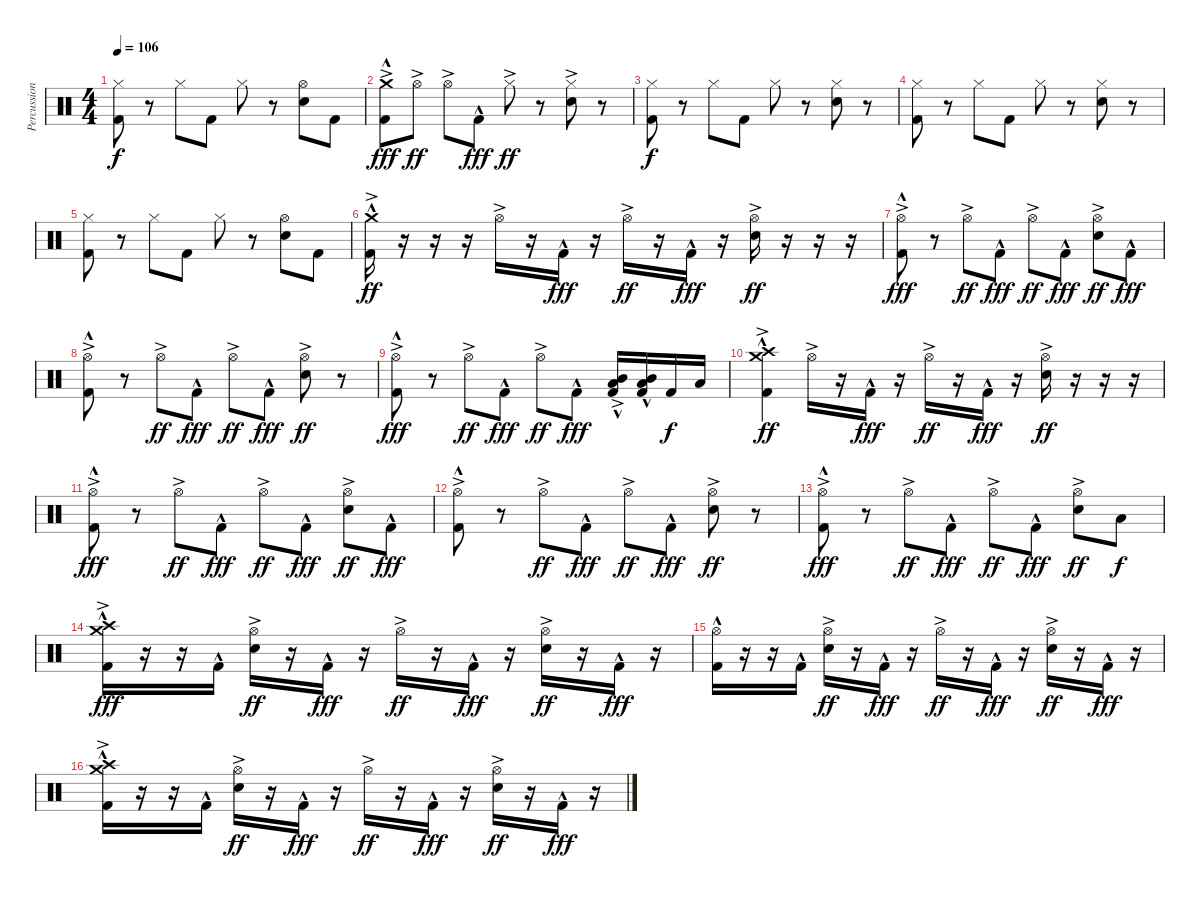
\track ("Percussion" "Percussion") {instrument percussion}
\staff {score}
\articulation defaults
\ts (4 4)
\tempo 106
\clef neutral
\ks c
("Hi-Hat (closed)" "Kick (hit) 2").8{dy f} r.8 "Hi-Hat (closed)".8 "Kick (hit) 2".8 "Hi-Hat (closed)".8 r.8 ("Hi-Hat (open)" "Snare (hit) 2").8 "Kick (hit) 2".8 |
("Crash medium (hit)"{ac} "Kick (hit) 2"{hac}).8{dy fff} "Hi-Hat (open)"{ac}.8{dy ff} "Hi-Hat (open)"{ac}.8 "Kick (hit) 2"{hac}.8{dy fff} "Hi-Hat (closed)"{ac}.8{dy ff} r.8 ("Hi-Hat (closed)"{ac} "Snare (hit) 2"{ac}).8 r.8 |
("Hi-Hat (closed)" "Kick (hit) 2").8{dy f} r.8 "Hi-Hat (closed)".8 "Kick (hit) 2".8 "Hi-Hat (closed)".8 r.8 ("Hi-Hat (closed)" "Snare (hit) 2").8 r.8 |
("Hi-Hat (closed)" "Kick (hit) 2").8 r.8 "Hi-Hat (closed)".8 "Kick (hit) 2".8 "Hi-Hat (closed)".8 r.8 ("Hi-Hat (closed)" "Snare (hit) 2").8 r.8 |
("Hi-Hat (closed)" "Kick (hit) 2").8 r.8 "Hi-Hat (closed)".8 "Kick (hit) 2".8 "Hi-Hat (closed)".8 r.8 ("Hi-Hat (open)" "Snare (hit) 2").8 "Kick (hit) 2".8 |
("Crash medium (hit)"{hac} "Kick (hit) 2"{ac}).16{dy ff} r.16 r.16 r.16 "Hi-Hat (open)"{ac}.16 r.16 "Kick (hit) 2"{hac}.16{dy fff} r.16 "Hi-Hat (open)"{ac}.16{dy ff} r.16 "Kick (hit) 2"{hac}.16{dy fff} r.16 ("Hi-Hat (open)"{ac} "Snare (hit) 2"{ac}).16{dy ff} r.16 r.16 r.16 |
("Hi-Hat (open)"{ac} "Kick (hit) 2"{hac}).8{dy fff} r.8 "Hi-Hat (open)"{ac}.8{dy ff} "Kick (hit) 2"{hac}.8{dy fff} "Hi-Hat (open)"{ac}.8{dy ff} "Kick (hit) 2"{hac}.8{dy fff} ("Hi-Hat (open)"{ac} "Snare (hit) 2"{ac}).8{dy ff} "Kick (hit) 2"{hac}.8{dy fff} |
("Hi-Hat (open)"{ac} "Kick (hit) 2"{hac}).8 r.8 "Hi-Hat (open)"{ac}.8{dy ff} "Kick (hit) 2"{hac}.8{dy fff} "Hi-Hat (open)"{ac}.8{dy ff} "Kick (hit) 2"{hac}.8{dy fff} ("Hi-Hat (open)"{ac} "Snare (hit) 2"{ac}).8{dy ff} r.8 |
("Hi-Hat (open)"{ac} "Kick (hit) 2"{hac}).8{dy fff} r.8 "Hi-Hat (open)"{ac}.8{dy ff} "Kick (hit) 2"{hac}.8{dy fff} "Hi-Hat (open)"{ac}.8{dy ff} "Kick (hit) 2"{hac}.8{dy fff} ("Low Tom (hit)"{ac} "Mid Tom (hit)"{hac} "Kick (hit) 2").16 ("Low Tom (hit)"{hac} "Mid Tom (hit)"{hac} "Kick (hit) 2").16 "Kick (hit) 2".16{dy f} "Low Tom (hit)".16 |
("Crash medium (hit)"{hac} "Crash high (hit)"{hac} "Kick (hit) 2"{ac}).4{dy ff} "Hi-Hat (open)"{ac}.16 r.16 "Kick (hit) 2"{hac}.16{dy fff} r.16 "Hi-Hat (open)"{ac}.16{dy ff} r.16 "Kick (hit) 2"{hac}.16{dy fff} r.16 ("Hi-Hat (open)"{ac} "Snare (hit) 2"{ac}).16{dy ff} r.16 r.16 r.16 |
("Hi-Hat (open)"{ac} "Kick (hit) 2"{hac}).8{dy fff} r.8 "Hi-Hat (open)"{ac}.8{dy ff} "Kick (hit) 2"{hac}.8{dy fff} "Hi-Hat (open)"{ac}.8{dy ff} "Kick (hit) 2"{hac}.8{dy fff} ("Hi-Hat (open)"{ac} "Snare (hit) 2"{ac}).8{dy ff} "Kick (hit) 2"{hac}.8{dy fff} |
("Hi-Hat (open)"{ac} "Kick (hit) 2"{hac}).8 r.8 "Hi-Hat (open)"{ac}.8{dy ff} "Kick (hit) 2"{hac}.8{dy fff} "Hi-Hat (open)"{ac}.8{dy ff} "Kick (hit) 2"{hac}.8{dy fff} ("Hi-Hat (open)"{ac} "Snare (hit) 2"{ac}).8{dy ff} r.8 |
("Hi-Hat (open)"{ac} "Kick (hit) 2"{hac}).8{dy fff} r.8 "Hi-Hat (open)"{ac}.8{dy ff} "Kick (hit) 2"{hac}.8{dy fff} "Hi-Hat (open)"{ac}.8{dy ff} "Kick (hit) 2"{hac}.8{dy fff} ("Hi-Hat (open)"{ac} "Snare (hit) 2"{ac}).8{dy ff} "Low Tom (hit)".8{dy f} |
("Crash medium (hit)"{hac} "Crash high (hit)"{ac} "Kick (hit) 2"{hac}).16{dy fff} r.16 r.16 "Kick (hit) 2"{hac}.16 ("Hi-Hat (open)"{ac} "Snare (hit) 2"{ac}).16{dy ff} r.16 "Kick (hit) 2"{hac}.16{dy fff} r.16 "Hi-Hat (open)"{ac}.16{dy ff} r.16 "Kick (hit) 2"{hac}.16{dy fff} r.16 ("Hi-Hat (open)"{ac} "Snare (hit) 2"{ac}).16{dy ff} r.16 "Kick (hit) 2"{hac}.16{dy fff} r.16 |
("Hi-Hat (open)"{hac} "Kick (hit) 2"{hac}).16 r.16 r.16 "Kick (hit) 2"{hac}.16 ("Hi-Hat (open)"{ac} "Snare (hit) 2"{ac}).16{dy ff} r.16 "Kick (hit) 2"{hac}.16{dy fff} r.16 "Hi-Hat (open)"{ac}.16{dy ff} r.16 "Kick (hit) 2"{hac}.16{dy fff} r.16 ("Hi-Hat (open)"{ac} "Snare (hit) 2"{ac}).16{dy ff} r.16 "Kick (hit) 2"{hac}.16{dy fff} r.16 |
("Crash medium (hit)"{hac} "Crash high (hit)"{ac} "Kick (hit) 2"{hac}).16 r.16 r.16 "Kick (hit) 2"{hac}.16 ("Hi-Hat (open)"{ac} "Snare (hit) 2"{ac}).16{dy ff} r.16 "Kick (hit) 2"{hac}.16{dy fff} r.16 "Hi-Hat (open)"{ac}.16{dy ff} r.16 "Kick (hit) 2"{hac}.16{dy fff} r.16 ("Hi-Hat (open)"{ac} "Snare (hit) 2"{ac}).16{dy ff} r.16 "Kick (hit) 2"{hac}.16{dy fff} r.16
